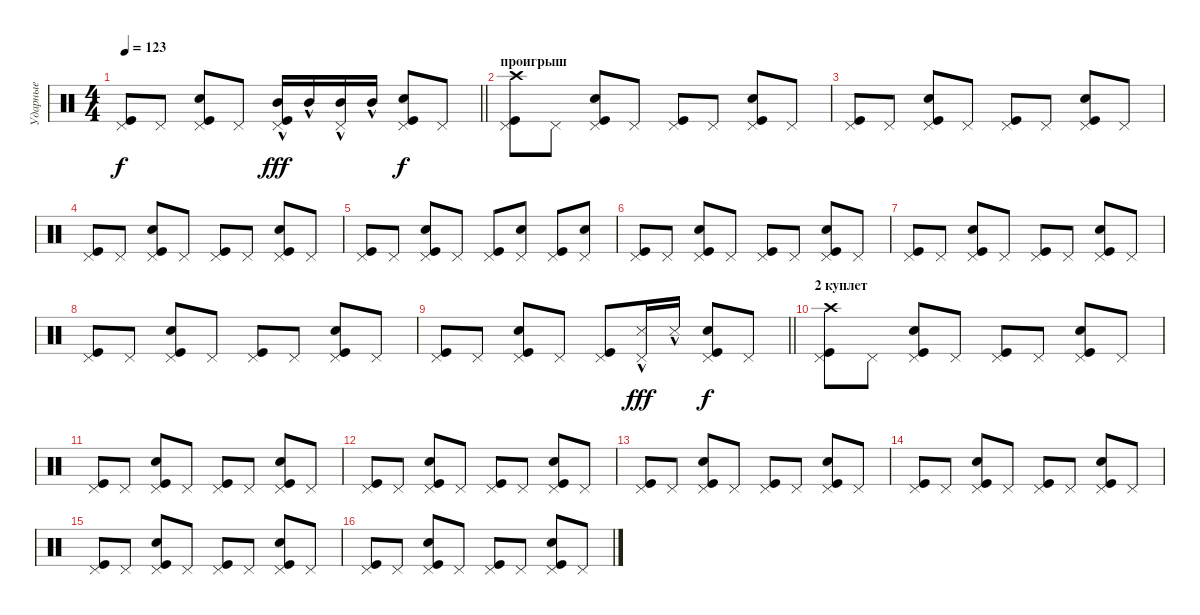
\track ("Ударные" "Ударные") {instrument percussion}
\staff {score}
\articulation defaults
\ts (4 4)
\tempo 123
\clef neutral
\barLineRight lightlight
\ks c
("Pedal Hi-Hat (hit)" "Kick (hit)").8{dy f} "Pedal Hi-Hat (hit)".8 ("Pedal Hi-Hat (hit)" "Kick (hit)" "Snare (hit) 2").8 "Pedal Hi-Hat (hit)".8 ("Mid Tom (hit)"{hac} "Pedal Hi-Hat (hit)" "Kick (hit)").16{dy fff} "Mid Tom (hit)"{hac}.16 ("Mid Tom (hit)"{hac} "Pedal Hi-Hat (hit)").16 "Mid Tom (hit)"{hac}.16 ("Pedal Hi-Hat (hit)" "Kick (hit)" "Snare (hit) 2").8{dy f} "Pedal Hi-Hat (hit)".8 |
\section ("" "проигрыш")
("Pedal Hi-Hat (hit)" "Kick (hit)" "Crash high (hit)").8 "Pedal Hi-Hat (hit)".8 ("Pedal Hi-Hat (hit)" "Kick (hit)" "Snare (hit) 2").8 "Pedal Hi-Hat (hit)".8 ("Pedal Hi-Hat (hit)" "Kick (hit)").8 "Pedal Hi-Hat (hit)".8 ("Pedal Hi-Hat (hit)" "Kick (hit)" "Snare (hit) 2").8 "Pedal Hi-Hat (hit)".8 |
("Pedal Hi-Hat (hit)" "Kick (hit)").8 "Pedal Hi-Hat (hit)".8 ("Pedal Hi-Hat (hit)" "Kick (hit)" "Snare (hit) 2").8 "Pedal Hi-Hat (hit)".8 ("Pedal Hi-Hat (hit)" "Kick (hit)").8 "Pedal Hi-Hat (hit)".8 ("Pedal Hi-Hat (hit)" "Kick (hit)" "Snare (hit) 2").8 "Pedal Hi-Hat (hit)".8 |
("Pedal Hi-Hat (hit)" "Kick (hit)").8 "Pedal Hi-Hat (hit)".8 ("Pedal Hi-Hat (hit)" "Kick (hit)" "Snare (hit) 2").8 "Pedal Hi-Hat (hit)".8 ("Pedal Hi-Hat (hit)" "Kick (hit)").8 "Pedal Hi-Hat (hit)".8 ("Pedal Hi-Hat (hit)" "Kick (hit)" "Snare (hit) 2").8 "Pedal Hi-Hat (hit)".8 |
("Pedal Hi-Hat (hit)" "Kick (hit)").8 "Pedal Hi-Hat (hit)".8 ("Pedal Hi-Hat (hit)" "Kick (hit)" "Snare (hit) 2").8 "Pedal Hi-Hat (hit)".8 ("Pedal Hi-Hat (hit)" "Kick (hit)").8 ("Pedal Hi-Hat (hit)" "Snare (hit) 2").8 ("Pedal Hi-Hat (hit)" "Kick (hit)").8 ("Pedal Hi-Hat (hit)" "Snare (hit) 2").8 |
("Pedal Hi-Hat (hit)" "Kick (hit)").8 "Pedal Hi-Hat (hit)".8 ("Pedal Hi-Hat (hit)" "Kick (hit)" "Snare (hit) 2").8 "Pedal Hi-Hat (hit)".8 ("Pedal Hi-Hat (hit)" "Kick (hit)").8 "Pedal Hi-Hat (hit)".8 ("Pedal Hi-Hat (hit)" "Kick (hit)" "Snare (hit) 2").8 "Pedal Hi-Hat (hit)".8 |
("Pedal Hi-Hat (hit)" "Kick (hit)").8 "Pedal Hi-Hat (hit)".8 ("Pedal Hi-Hat (hit)" "Kick (hit)" "Snare (hit) 2").8 "Pedal Hi-Hat (hit)".8 ("Pedal Hi-Hat (hit)" "Kick (hit)").8 "Pedal Hi-Hat (hit)".8 ("Pedal Hi-Hat (hit)" "Kick (hit)" "Snare (hit) 2").8 "Pedal Hi-Hat (hit)".8 |
("Pedal Hi-Hat (hit)" "Kick (hit)").8 "Pedal Hi-Hat (hit)".8 ("Pedal Hi-Hat (hit)" "Kick (hit)" "Snare (hit) 2").8 "Pedal Hi-Hat (hit)".8 ("Pedal Hi-Hat (hit)" "Kick (hit)").8 "Pedal Hi-Hat (hit)".8 ("Pedal Hi-Hat (hit)" "Kick (hit)" "Snare (hit) 2").8 "Pedal Hi-Hat (hit)".8 |
\barLineRight lightlight
("Pedal Hi-Hat (hit)" "Kick (hit)").8 "Pedal Hi-Hat (hit)".8 ("Pedal Hi-Hat (hit)" "Kick (hit)" "Snare (hit) 2").8 "Pedal Hi-Hat (hit)".8 ("Pedal Hi-Hat (hit)" "Kick (hit)").8 ("Pedal Hi-Hat (hit)" "Snare (side stick) 3"{hac}).16{dy fff} "Snare (side stick) 3"{hac}.16 ("Pedal Hi-Hat (hit)" "Kick (hit)" "Snare (hit) 2").8{dy f} "Pedal Hi-Hat (hit)".8 |
\section ("" "2 куплет")
("Pedal Hi-Hat (hit)" "Kick (hit)" "Crash high (hit)").8 "Pedal Hi-Hat (hit)".8 ("Pedal Hi-Hat (hit)" "Kick (hit)" "Snare (hit) 2").8 "Pedal Hi-Hat (hit)".8 ("Pedal Hi-Hat (hit)" "Kick (hit)").8 "Pedal Hi-Hat (hit)".8 ("Pedal Hi-Hat (hit)" "Kick (hit)" "Snare (hit) 2").8 "Pedal Hi-Hat (hit)".8 |
("Pedal Hi-Hat (hit)" "Kick (hit)").8 "Pedal Hi-Hat (hit)".8 ("Pedal Hi-Hat (hit)" "Kick (hit)" "Snare (hit) 2").8 "Pedal Hi-Hat (hit)".8 ("Pedal Hi-Hat (hit)" "Kick (hit)").8 "Pedal Hi-Hat (hit)".8 ("Pedal Hi-Hat (hit)" "Kick (hit)" "Snare (hit) 2").8 "Pedal Hi-Hat (hit)".8 |
("Pedal Hi-Hat (hit)" "Kick (hit)").8 "Pedal Hi-Hat (hit)".8 ("Pedal Hi-Hat (hit)" "Kick (hit)" "Snare (hit) 2").8 "Pedal Hi-Hat (hit)".8 ("Pedal Hi-Hat (hit)" "Kick (hit)").8 "Pedal Hi-Hat (hit)".8 ("Pedal Hi-Hat (hit)" "Kick (hit)" "Snare (hit) 2").8 "Pedal Hi-Hat (hit)".8 |
("Pedal Hi-Hat (hit)" "Kick (hit)").8 "Pedal Hi-Hat (hit)".8 ("Pedal Hi-Hat (hit)" "Kick (hit)" "Snare (hit) 2").8 "Pedal Hi-Hat (hit)".8 ("Pedal Hi-Hat (hit)" "Kick (hit)").8 "Pedal Hi-Hat (hit)".8 ("Pedal Hi-Hat (hit)" "Kick (hit)" "Snare (hit) 2").8 "Pedal Hi-Hat (hit)".8 |
("Pedal Hi-Hat (hit)" "Kick (hit)").8 "Pedal Hi-Hat (hit)".8 ("Pedal Hi-Hat (hit)" "Kick (hit)" "Snare (hit) 2").8 "Pedal Hi-Hat (hit)".8 ("Pedal Hi-Hat (hit)" "Kick (hit)").8 "Pedal Hi-Hat (hit)".8 ("Pedal Hi-Hat (hit)" "Kick (hit)" "Snare (hit) 2").8 "Pedal Hi-Hat (hit)".8 |
("Pedal Hi-Hat (hit)" "Kick (hit)").8 "Pedal Hi-Hat (hit)".8 ("Pedal Hi-Hat (hit)" "Kick (hit)" "Snare (hit) 2").8 "Pedal Hi-Hat (hit)".8 ("Pedal Hi-Hat (hit)" "Kick (hit)").8 "Pedal Hi-Hat (hit)".8 ("Pedal Hi-Hat (hit)" "Kick (hit)" "Snare (hit) 2").8 "Pedal Hi-Hat (hit)".8 |
("Pedal Hi-Hat (hit)" "Kick (hit)").8 "Pedal Hi-Hat (hit)".8 ("Pedal Hi-Hat (hit)" "Kick (hit)" "Snare (hit) 2").8 "Pedal Hi-Hat (hit)".8 ("Pedal Hi-Hat (hit)" "Kick (hit)").8 "Pedal Hi-Hat (hit)".8 ("Pedal Hi-Hat (hit)" "Kick (hit)" "Snare (hit) 2").8 "Pedal Hi-Hat (hit)".8
